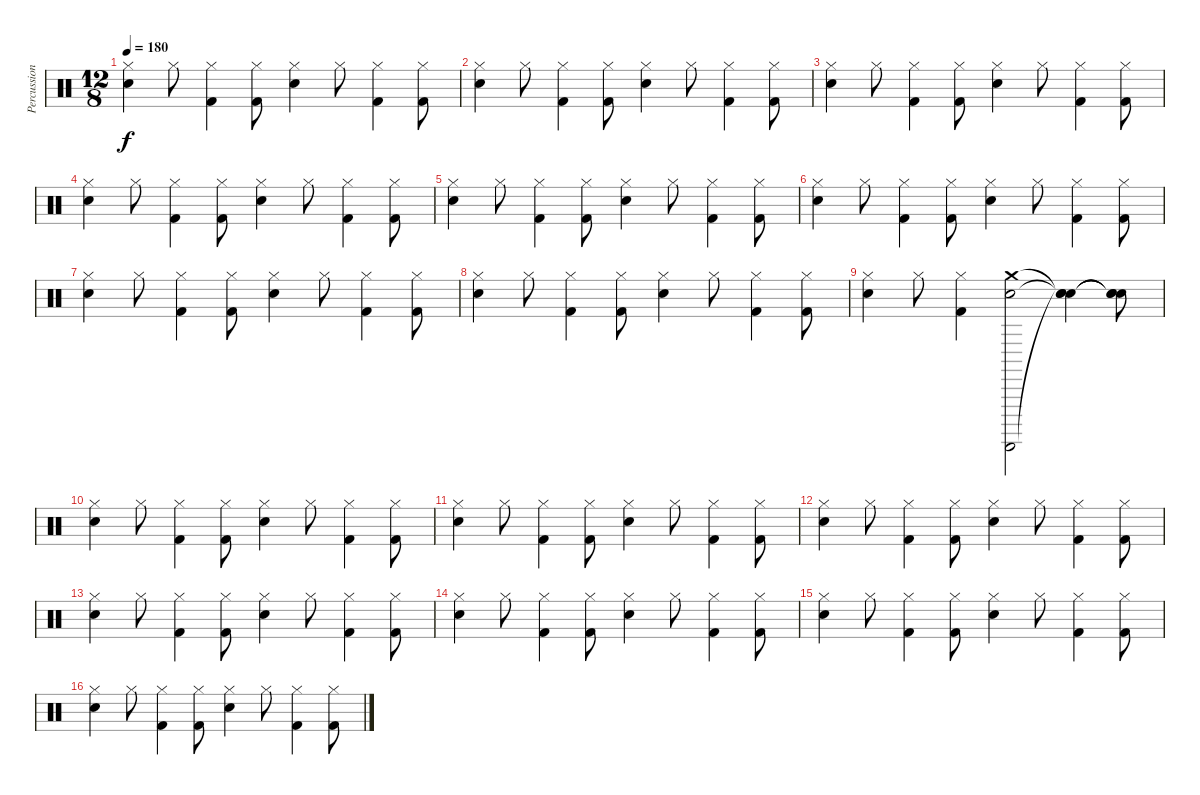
\track ("Percussion" "Percussion") {instrument percussion}
\staff {score}
\articulation defaults
\ts (12 8)
\tempo 180
\clef neutral
\ks c
("Snare (hit) 2" "Hi-Hat (closed)").4{dy f} "Hi-Hat (closed)".8 ("Kick (hit) 2" "Hi-Hat (closed)").4 ("Kick (hit) 2" "Hi-Hat (closed)").8 ("Snare (hit) 2" "Hi-Hat (closed)").4 "Hi-Hat (closed)".8 ("Kick (hit) 2" "Hi-Hat (closed)").4 ("Kick (hit) 2" "Hi-Hat (closed)").8 |
("Snare (hit) 2" "Hi-Hat (closed)").4 "Hi-Hat (closed)".8 ("Kick (hit) 2" "Hi-Hat (closed)").4 ("Kick (hit) 2" "Hi-Hat (closed)").8 ("Snare (hit) 2" "Hi-Hat (closed)").4 "Hi-Hat (closed)".8 ("Kick (hit) 2" "Hi-Hat (closed)").4 ("Kick (hit) 2" "Hi-Hat (closed)").8 |
("Snare (hit) 2" "Hi-Hat (closed)").4 "Hi-Hat (closed)".8 ("Kick (hit) 2" "Hi-Hat (closed)").4 ("Kick (hit) 2" "Hi-Hat (closed)").8 ("Snare (hit) 2" "Hi-Hat (closed)").4 "Hi-Hat (closed)".8 ("Kick (hit) 2" "Hi-Hat (closed)").4 ("Kick (hit) 2" "Hi-Hat (closed)").8 |
("Snare (hit) 2" "Hi-Hat (closed)").4 "Hi-Hat (closed)".8 ("Kick (hit) 2" "Hi-Hat (closed)").4 ("Kick (hit) 2" "Hi-Hat (closed)").8 ("Snare (hit) 2" "Hi-Hat (closed)").4 "Hi-Hat (closed)".8 ("Kick (hit) 2" "Hi-Hat (closed)").4 ("Kick (hit) 2" "Hi-Hat (closed)").8 |
("Snare (hit) 2" "Hi-Hat (closed)").4 "Hi-Hat (closed)".8 ("Kick (hit) 2" "Hi-Hat (closed)").4 ("Kick (hit) 2" "Hi-Hat (closed)").8 ("Snare (hit) 2" "Hi-Hat (closed)").4 "Hi-Hat (closed)".8 ("Kick (hit) 2" "Hi-Hat (closed)").4 ("Kick (hit) 2" "Hi-Hat (closed)").8 |
("Snare (hit) 2" "Hi-Hat (closed)").4 "Hi-Hat (closed)".8 ("Kick (hit) 2" "Hi-Hat (closed)").4 ("Kick (hit) 2" "Hi-Hat (closed)").8 ("Snare (hit) 2" "Hi-Hat (closed)").4 "Hi-Hat (closed)".8 ("Kick (hit) 2" "Hi-Hat (closed)").4 ("Kick (hit) 2" "Hi-Hat (closed)").8 |
("Snare (hit) 2" "Hi-Hat (closed)").4 "Hi-Hat (closed)".8 ("Kick (hit) 2" "Hi-Hat (closed)").4 ("Kick (hit) 2" "Hi-Hat (closed)").8 ("Snare (hit) 2" "Hi-Hat (closed)").4 "Hi-Hat (closed)".8 ("Kick (hit) 2" "Hi-Hat (closed)").4 ("Kick (hit) 2" "Hi-Hat (closed)").8 |
("Snare (hit) 2" "Hi-Hat (closed)").4 "Hi-Hat (closed)".8 ("Kick (hit) 2" "Hi-Hat (closed)").4 ("Kick (hit) 2" "Hi-Hat (closed)").8 ("Snare (hit) 2" "Hi-Hat (closed)").4 "Hi-Hat (closed)".8 ("Kick (hit) 2" "Hi-Hat (closed)").4 ("Kick (hit) 2" "Hi-Hat (closed)").8 |
("Snare (hit) 2" "Hi-Hat (closed)").4 "Hi-Hat (closed)".8 ("Kick (hit) 2" "Hi-Hat (closed)").4 ("Guiro (scrap-return)" "Snare (hit) 2" "Crash medium (hit)").2 ("Snare (hit)"{t} "Snare (hit)"{t} "Snare (hit)"{t}).4 ("Snare (hit)"{t} "Snare (hit)"{t} "Snare (hit)"{t}).8 |
("Snare (hit) 2" "Hi-Hat (closed)").4 "Hi-Hat (closed)".8 ("Kick (hit) 2" "Hi-Hat (closed)").4 ("Kick (hit) 2" "Hi-Hat (closed)").8 ("Snare (hit) 2" "Hi-Hat (closed)").4 "Hi-Hat (closed)".8 ("Kick (hit) 2" "Hi-Hat (closed)").4 ("Kick (hit) 2" "Hi-Hat (closed)").8 |
("Snare (hit) 2" "Hi-Hat (closed)").4 "Hi-Hat (closed)".8 ("Kick (hit) 2" "Hi-Hat (closed)").4 ("Kick (hit) 2" "Hi-Hat (closed)").8 ("Snare (hit) 2" "Hi-Hat (closed)").4 "Hi-Hat (closed)".8 ("Kick (hit) 2" "Hi-Hat (closed)").4 ("Kick (hit) 2" "Hi-Hat (closed)").8 |
("Snare (hit) 2" "Hi-Hat (closed)").4 "Hi-Hat (closed)".8 ("Kick (hit) 2" "Hi-Hat (closed)").4 ("Kick (hit) 2" "Hi-Hat (closed)").8 ("Snare (hit) 2" "Hi-Hat (closed)").4 "Hi-Hat (closed)".8 ("Kick (hit) 2" "Hi-Hat (closed)").4 ("Kick (hit) 2" "Hi-Hat (closed)").8 |
("Snare (hit) 2" "Hi-Hat (closed)").4 "Hi-Hat (closed)".8 ("Kick (hit) 2" "Hi-Hat (closed)").4 ("Kick (hit) 2" "Hi-Hat (closed)").8 ("Snare (hit) 2" "Hi-Hat (closed)").4 "Hi-Hat (closed)".8 ("Kick (hit) 2" "Hi-Hat (closed)").4 ("Kick (hit) 2" "Hi-Hat (closed)").8 |
("Snare (hit) 2" "Hi-Hat (closed)").4 "Hi-Hat (closed)".8 ("Kick (hit) 2" "Hi-Hat (closed)").4 ("Kick (hit) 2" "Hi-Hat (closed)").8 ("Snare (hit) 2" "Hi-Hat (closed)").4 "Hi-Hat (closed)".8 ("Kick (hit) 2" "Hi-Hat (closed)").4 ("Kick (hit) 2" "Hi-Hat (closed)").8 |
("Snare (hit) 2" "Hi-Hat (closed)").4 "Hi-Hat (closed)".8 ("Kick (hit) 2" "Hi-Hat (closed)").4 ("Kick (hit) 2" "Hi-Hat (closed)").8 ("Snare (hit) 2" "Hi-Hat (closed)").4 "Hi-Hat (closed)".8 ("Kick (hit) 2" "Hi-Hat (closed)").4 ("Kick (hit) 2" "Hi-Hat (closed)").8 |
("Snare (hit) 2" "Hi-Hat (closed)").4 "Hi-Hat (closed)".8 ("Kick (hit) 2" "Hi-Hat (closed)").4 ("Kick (hit) 2" "Hi-Hat (closed)").8 ("Snare (hit) 2" "Hi-Hat (closed)").4 "Hi-Hat (closed)".8 ("Kick (hit) 2" "Hi-Hat (closed)").4 ("Kick (hit) 2" "Hi-Hat (closed)").8
